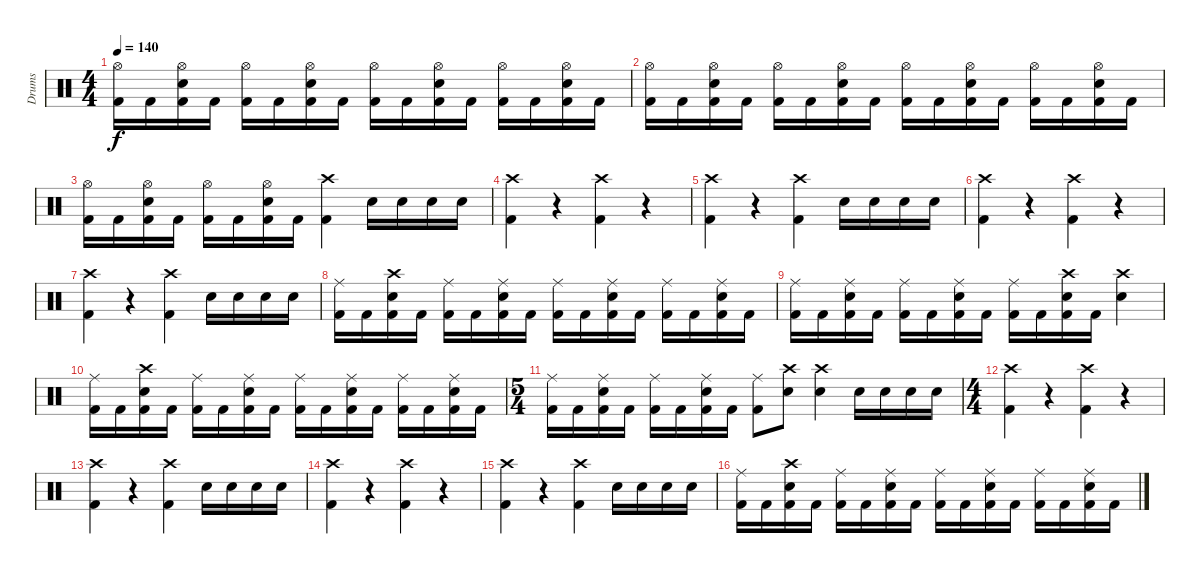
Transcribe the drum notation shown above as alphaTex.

\track ("Drums" "Drums") {instrument percussion}
\staff {score}
\articulation defaults
\ts (4 4)
\tempo 140
\clef neutral
\ks c
("Hi-Hat (open)" "Kick (hit) 2").16{dy f} "Kick (hit) 2".16 ("Hi-Hat (open)" "Electric Snare (hit)" "Kick (hit) 2").16 "Kick (hit) 2".16 ("Hi-Hat (open)" "Kick (hit) 2").16 "Kick (hit) 2".16 ("Hi-Hat (open)" "Electric Snare (hit)" "Kick (hit) 2").16 "Kick (hit) 2".16 ("Hi-Hat (open)" "Kick (hit) 2").16 "Kick (hit) 2".16 ("Hi-Hat (open)" "Electric Snare (hit)" "Kick (hit) 2").16 "Kick (hit) 2".16 ("Hi-Hat (open)" "Kick (hit) 2").16 "Kick (hit) 2".16 ("Hi-Hat (open)" "Electric Snare (hit)" "Kick (hit) 2").16 "Kick (hit) 2".16 |
("Hi-Hat (open)" "Kick (hit) 2").16 "Kick (hit) 2".16 ("Hi-Hat (open)" "Electric Snare (hit)" "Kick (hit) 2").16 "Kick (hit) 2".16 ("Hi-Hat (open)" "Kick (hit) 2").16 "Kick (hit) 2".16 ("Hi-Hat (open)" "Electric Snare (hit)" "Kick (hit) 2").16 "Kick (hit) 2".16 ("Hi-Hat (open)" "Kick (hit) 2").16 "Kick (hit) 2".16 ("Hi-Hat (open)" "Electric Snare (hit)" "Kick (hit) 2").16 "Kick (hit) 2".16 ("Hi-Hat (open)" "Kick (hit) 2").16 "Kick (hit) 2".16 ("Hi-Hat (open)" "Electric Snare (hit)" "Kick (hit) 2").16 "Kick (hit) 2".16 |
("Hi-Hat (open)" "Kick (hit) 2").16 "Kick (hit) 2".16 ("Hi-Hat (open)" "Electric Snare (hit)" "Kick (hit) 2").16 "Kick (hit) 2".16 ("Hi-Hat (open)" "Kick (hit) 2").16 "Kick (hit) 2".16 ("Hi-Hat (open)" "Electric Snare (hit)" "Kick (hit) 2").16 "Kick (hit) 2".16 ("Crash high (hit)" "Kick (hit) 2").4 "Electric Snare (hit)".16 "Electric Snare (hit)".16 "Electric Snare (hit)".16 "Electric Snare (hit)".16 |
("Crash high (hit)" "Kick (hit) 2").4 r.4 ("Crash high (hit)" "Kick (hit) 2").4 r.4 |
("Crash high (hit)" "Kick (hit) 2").4 r.4 ("Crash high (hit)" "Kick (hit) 2").4 "Electric Snare (hit)".16 "Electric Snare (hit)".16 "Electric Snare (hit)".16 "Electric Snare (hit)".16 |
("Crash high (hit)" "Kick (hit) 2").4 r.4 ("Crash high (hit)" "Kick (hit) 2").4 r.4 |
("Crash high (hit)" "Kick (hit) 2").4 r.4 ("Crash high (hit)" "Kick (hit) 2").4 "Electric Snare (hit)".16 "Electric Snare (hit)".16 "Electric Snare (hit)".16 "Electric Snare (hit)".16 |
("Ride (middle)" "Kick (hit) 2").16 "Kick (hit) 2".16 ("Crash high (hit)" "Electric Snare (hit)" "Kick (hit) 2").16 "Kick (hit) 2".16 ("Ride (middle)" "Kick (hit) 2").16 "Kick (hit) 2".16 ("Ride (middle)" "Electric Snare (hit)" "Kick (hit) 2").16 "Kick (hit) 2".16 ("Ride (middle)" "Kick (hit) 2").16 "Kick (hit) 2".16 ("Ride (middle)" "Electric Snare (hit)" "Kick (hit) 2").16 "Kick (hit) 2".16 ("Ride (middle)" "Kick (hit) 2").16 "Kick (hit) 2".16 ("Ride (middle)" "Electric Snare (hit)" "Kick (hit) 2").16 "Kick (hit) 2".16 |
("Ride (middle)" "Kick (hit) 2").16 "Kick (hit) 2".16 ("Ride (middle)" "Electric Snare (hit)" "Kick (hit) 2").16 "Kick (hit) 2".16 ("Ride (middle)" "Kick (hit) 2").16 "Kick (hit) 2".16 ("Ride (middle)" "Electric Snare (hit)" "Kick (hit) 2").16 "Kick (hit) 2".16 ("Ride (middle)" "Kick (hit) 2").16 "Kick (hit) 2".16 ("Crash high (hit)" "Electric Snare (hit)" "Kick (hit) 2").16 "Kick (hit) 2".16 ("Crash high (hit)" "Electric Snare (hit)").4 |
("Ride (middle)" "Kick (hit) 2").16 "Kick (hit) 2".16 ("Crash high (hit)" "Electric Snare (hit)" "Kick (hit) 2").16 "Kick (hit) 2".16 ("Ride (middle)" "Kick (hit) 2").16 "Kick (hit) 2".16 ("Ride (middle)" "Electric Snare (hit)" "Kick (hit) 2").16 "Kick (hit) 2".16 ("Ride (middle)" "Kick (hit) 2").16 "Kick (hit) 2".16 ("Ride (middle)" "Electric Snare (hit)" "Kick (hit) 2").16 "Kick (hit) 2".16 ("Ride (middle)" "Kick (hit) 2").16 "Kick (hit) 2".16 ("Ride (middle)" "Electric Snare (hit)" "Kick (hit) 2").16 "Kick (hit) 2".16 |
\ts (5 4)
("Ride (middle)" "Kick (hit) 2").16 "Kick (hit) 2".16 ("Ride (middle)" "Electric Snare (hit)" "Kick (hit) 2").16 "Kick (hit) 2".16 ("Ride (middle)" "Kick (hit) 2").16 "Kick (hit) 2".16 ("Ride (middle)" "Electric Snare (hit)" "Kick (hit) 2").16 "Kick (hit) 2".16 ("Ride (middle)" "Kick (hit) 2").8 ("Crash high (hit)" "Electric Snare (hit)").8 ("Crash high (hit)" "Electric Snare (hit)").4 "Electric Snare (hit)".16 "Electric Snare (hit)".16 "Electric Snare (hit)".16 "Electric Snare (hit)".16 |
\ts (4 4)
("Crash high (hit)" "Kick (hit) 2").4 r.4 ("Crash high (hit)" "Kick (hit) 2").4 r.4 |
("Crash high (hit)" "Kick (hit) 2").4 r.4 ("Crash high (hit)" "Kick (hit) 2").4 "Electric Snare (hit)".16 "Electric Snare (hit)".16 "Electric Snare (hit)".16 "Electric Snare (hit)".16 |
("Crash high (hit)" "Kick (hit) 2").4 r.4 ("Crash high (hit)" "Kick (hit) 2").4 r.4 |
("Crash high (hit)" "Kick (hit) 2").4 r.4 ("Crash high (hit)" "Kick (hit) 2").4 "Electric Snare (hit)".16 "Electric Snare (hit)".16 "Electric Snare (hit)".16 "Electric Snare (hit)".16 |
("Ride (middle)" "Kick (hit) 2").16 "Kick (hit) 2".16 ("Crash high (hit)" "Electric Snare (hit)" "Kick (hit) 2").16 "Kick (hit) 2".16 ("Ride (middle)" "Kick (hit) 2").16 "Kick (hit) 2".16 ("Ride (middle)" "Electric Snare (hit)" "Kick (hit) 2").16 "Kick (hit) 2".16 ("Ride (middle)" "Kick (hit) 2").16 "Kick (hit) 2".16 ("Ride (middle)" "Electric Snare (hit)" "Kick (hit) 2").16 "Kick (hit) 2".16 ("Ride (middle)" "Kick (hit) 2").16 "Kick (hit) 2".16 ("Ride (middle)" "Electric Snare (hit)" "Kick (hit) 2").16 "Kick (hit) 2".16
